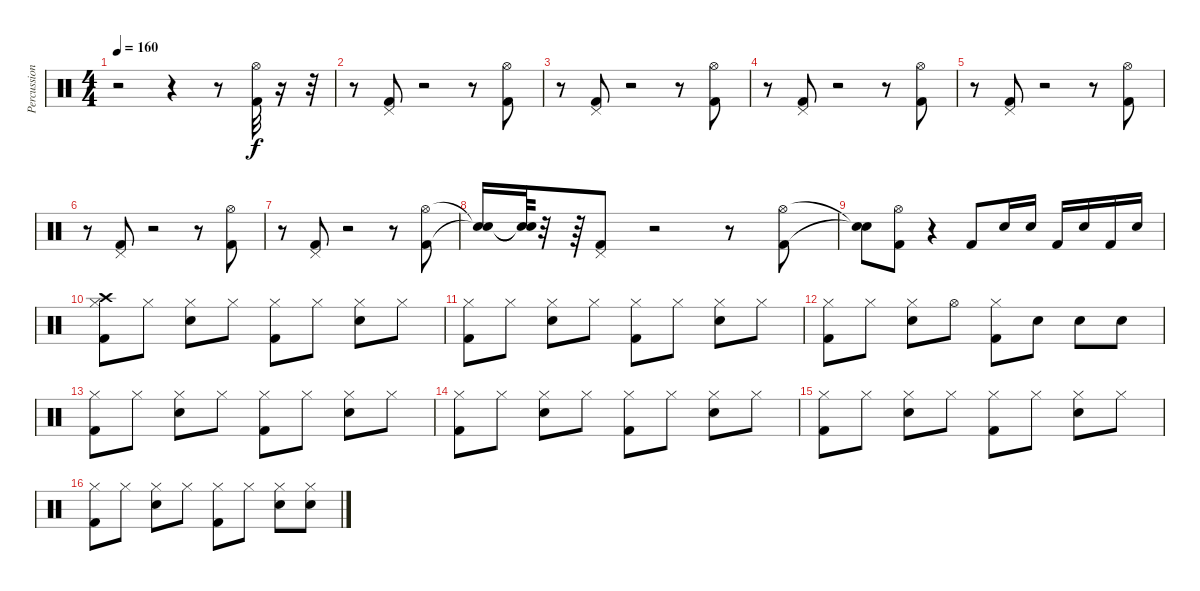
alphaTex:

\track ("Percussions" "Percussion") {instrument percussion}
\staff {score}
\articulation defaults
\ts (4 4)
\tempo 160
\clef neutral
\ks c
r.2{dy f} r.4 r.8 ("Hi-Hat (open)" "Kick (hit) 2").32 r.16 r.32 |
r.8 ("Pedal Hi-Hat (hit)" "Kick (hit) 2").8 r.2 r.8 ("Hi-Hat (open)" "Kick (hit) 2").8 |
r.8 ("Pedal Hi-Hat (hit)" "Kick (hit) 2").8 r.2 r.8 ("Hi-Hat (open)" "Kick (hit) 2").8 |
r.8 ("Pedal Hi-Hat (hit)" "Kick (hit) 2").8 r.2 r.8 ("Hi-Hat (open)" "Kick (hit) 2").8 |
r.8 ("Pedal Hi-Hat (hit)" "Kick (hit) 2").8 r.2 r.8 ("Hi-Hat (open)" "Kick (hit) 2").8 |
r.8 ("Pedal Hi-Hat (hit)" "Kick (hit) 2").8 r.2 r.8 ("Hi-Hat (open)" "Kick (hit) 2").8 |
r.8 ("Pedal Hi-Hat (hit)" "Kick (hit) 2").8 r.2 r.8 ("Hi-Hat (open)" "Kick (hit) 2").8 |
("Snare (hit)"{t} "Snare (hit)"{t}).16 ("Snare (hit)"{t} "Snare (hit)"{t}).64 r.32 r.64 ("Pedal Hi-Hat (hit)" "Kick (hit) 2").8 r.2 r.8 ("Hi-Hat (open)" "Kick (hit) 2").8 |
("Snare (hit)"{t} "Snare (hit)"{t}).8 ("Hi-Hat (open)" "Kick (hit) 2").8 r.4 "Kick (hit) 2".8 "Snare (hit) 2".16 "Snare (hit) 2".16 "Kick (hit) 2".16 "Snare (hit) 2".16 "Kick (hit) 2".16 "Snare (hit) 2".16 |
("Crash high (hit)" "Hi-Hat (closed)" "Kick (hit) 2").8 "Hi-Hat (closed)".8 ("Hi-Hat (closed)" "Snare (hit) 2").8 "Hi-Hat (closed)".8 ("Hi-Hat (closed)" "Kick (hit) 2").8 "Hi-Hat (closed)".8 ("Hi-Hat (closed)" "Snare (hit) 2").8 "Hi-Hat (closed)".8 |
("Hi-Hat (closed)" "Kick (hit) 2").8 "Hi-Hat (closed)".8 ("Hi-Hat (closed)" "Snare (hit) 2").8 "Hi-Hat (closed)".8 ("Hi-Hat (closed)" "Kick (hit) 2").8 "Hi-Hat (closed)".8 ("Hi-Hat (closed)" "Snare (hit) 2").8 "Hi-Hat (closed)".8 |
("Hi-Hat (closed)" "Kick (hit) 2").8 "Hi-Hat (closed)".8 ("Hi-Hat (closed)" "Snare (hit) 2").8 "Hi-Hat (open)".8 ("Hi-Hat (closed)" "Kick (hit) 2").8 "Snare (hit) 2".8 "Snare (hit) 2".8 "Snare (hit) 2".8 |
("Hi-Hat (closed)" "Kick (hit) 2").8 "Hi-Hat (closed)".8 ("Hi-Hat (closed)" "Snare (hit) 2").8 "Hi-Hat (closed)".8 ("Hi-Hat (closed)" "Kick (hit) 2").8 "Hi-Hat (closed)".8 ("Hi-Hat (closed)" "Snare (hit) 2").8 "Hi-Hat (closed)".8 |
("Hi-Hat (closed)" "Kick (hit) 2").8 "Hi-Hat (closed)".8 ("Hi-Hat (closed)" "Snare (hit) 2").8 "Hi-Hat (closed)".8 ("Hi-Hat (closed)" "Kick (hit) 2").8 "Hi-Hat (closed)".8 ("Hi-Hat (closed)" "Snare (hit) 2").8 "Hi-Hat (closed)".8 |
("Hi-Hat (closed)" "Kick (hit) 2").8 "Hi-Hat (closed)".8 ("Hi-Hat (closed)" "Snare (hit) 2").8 "Hi-Hat (closed)".8 ("Hi-Hat (closed)" "Kick (hit) 2").8 "Hi-Hat (closed)".8 ("Hi-Hat (closed)" "Snare (hit) 2").8 "Hi-Hat (closed)".8 |
("Hi-Hat (closed)" "Kick (hit) 2").8 "Hi-Hat (closed)".8 ("Hi-Hat (closed)" "Snare (hit) 2").8 "Hi-Hat (closed)".8 ("Hi-Hat (closed)" "Kick (hit) 2").8 "Hi-Hat (closed)".8 ("Hi-Hat (closed)" "Snare (hit) 2").8 ("Hi-Hat (closed)" "Snare (hit) 2").8
